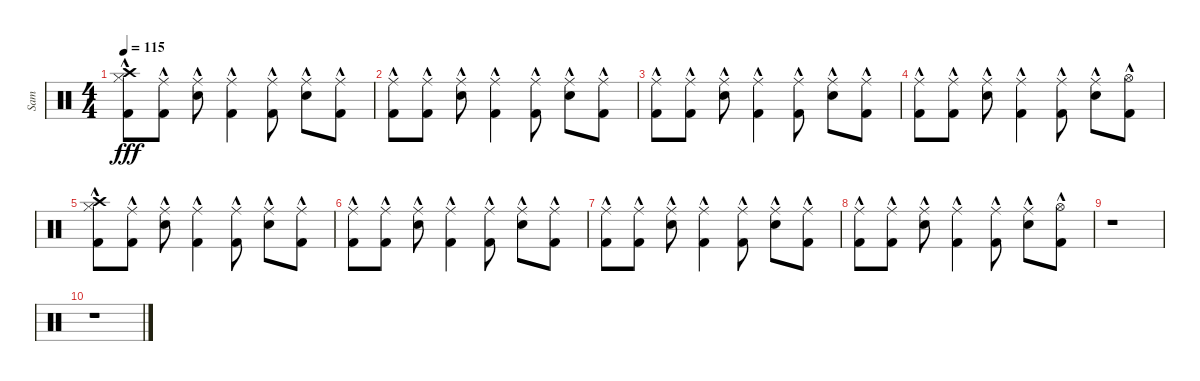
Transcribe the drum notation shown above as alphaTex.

\track ("Sam" "Sam") {instrument percussion}
\staff {score}
\articulation defaults
\ts (4 4)
\tempo 115
\clef neutral
\ks c
("Crash high (hit)" "Hi-Hat (closed)" "Kick (hit) 2"{hac}).8{dy fff} ("Ride (middle)" "Kick (hit) 2"{hac}).8 ("Ride (middle)" "Electric Snare (hit)"{hac}).8 ("Ride (middle)" "Kick (hit) 2"{hac}).4 ("Ride (middle)" "Kick (hit) 2"{hac}).8 ("Ride (middle)" "Electric Snare (hit)"{hac}).8 ("Ride (middle)" "Kick (hit) 2"{hac}).8 |
("Ride (middle)" "Kick (hit) 2"{hac}).8 ("Ride (middle)" "Kick (hit) 2"{hac}).8 ("Ride (middle)" "Electric Snare (hit)"{hac}).8 ("Ride (middle)" "Kick (hit) 2"{hac}).4 ("Ride (middle)" "Kick (hit) 2"{hac}).8 ("Ride (middle)" "Electric Snare (hit)"{hac}).8 ("Ride (middle)" "Kick (hit) 2"{hac}).8 |
("Ride (middle)" "Kick (hit) 2"{hac}).8 ("Ride (middle)" "Kick (hit) 2"{hac}).8 ("Ride (middle)" "Electric Snare (hit)"{hac}).8 ("Ride (middle)" "Kick (hit) 2"{hac}).4 ("Ride (middle)" "Kick (hit) 2"{hac}).8 ("Ride (middle)" "Electric Snare (hit)"{hac}).8 ("Ride (middle)" "Kick (hit) 2"{hac}).8 |
("Ride (middle)" "Kick (hit) 2"{hac}).8 ("Ride (middle)" "Kick (hit) 2"{hac}).8 ("Ride (middle)" "Electric Snare (hit)"{hac}).8 ("Ride (middle)" "Kick (hit) 2"{hac}).4 ("Ride (middle)" "Kick (hit) 2"{hac}).8 ("Ride (middle)" "Electric Snare (hit)"{hac}).8 ("Hi-Hat (open)" "Kick (hit) 2"{hac}).8 |
("Crash high (hit)" "Hi-Hat (closed)" "Kick (hit) 2"{hac}).8 ("Ride (middle)" "Kick (hit) 2"{hac}).8 ("Ride (middle)" "Electric Snare (hit)"{hac}).8 ("Ride (middle)" "Kick (hit) 2"{hac}).4 ("Ride (middle)" "Kick (hit) 2"{hac}).8 ("Ride (middle)" "Electric Snare (hit)"{hac}).8 ("Ride (middle)" "Kick (hit) 2"{hac}).8 |
("Ride (middle)" "Kick (hit) 2"{hac}).8 ("Ride (middle)" "Kick (hit) 2"{hac}).8 ("Ride (middle)" "Electric Snare (hit)"{hac}).8 ("Ride (middle)" "Kick (hit) 2"{hac}).4 ("Ride (middle)" "Kick (hit) 2"{hac}).8 ("Ride (middle)" "Electric Snare (hit)"{hac}).8 ("Ride (middle)" "Kick (hit) 2"{hac}).8 |
("Ride (middle)" "Kick (hit) 2"{hac}).8 ("Ride (middle)" "Kick (hit) 2"{hac}).8 ("Ride (middle)" "Electric Snare (hit)"{hac}).8 ("Ride (middle)" "Kick (hit) 2"{hac}).4 ("Ride (middle)" "Kick (hit) 2"{hac}).8 ("Ride (middle)" "Electric Snare (hit)"{hac}).8 ("Ride (middle)" "Kick (hit) 2"{hac}).8 |
("Ride (middle)" "Kick (hit) 2"{hac}).8 ("Ride (middle)" "Kick (hit) 2"{hac}).8 ("Ride (middle)" "Electric Snare (hit)"{hac}).8 ("Ride (middle)" "Kick (hit) 2"{hac}).4 ("Ride (middle)" "Kick (hit) 2"{hac}).8 ("Ride (middle)" "Electric Snare (hit)"{hac}).8 ("Hi-Hat (open)" "Kick (hit) 2"{hac}).8 |
r.1 |
r.1
